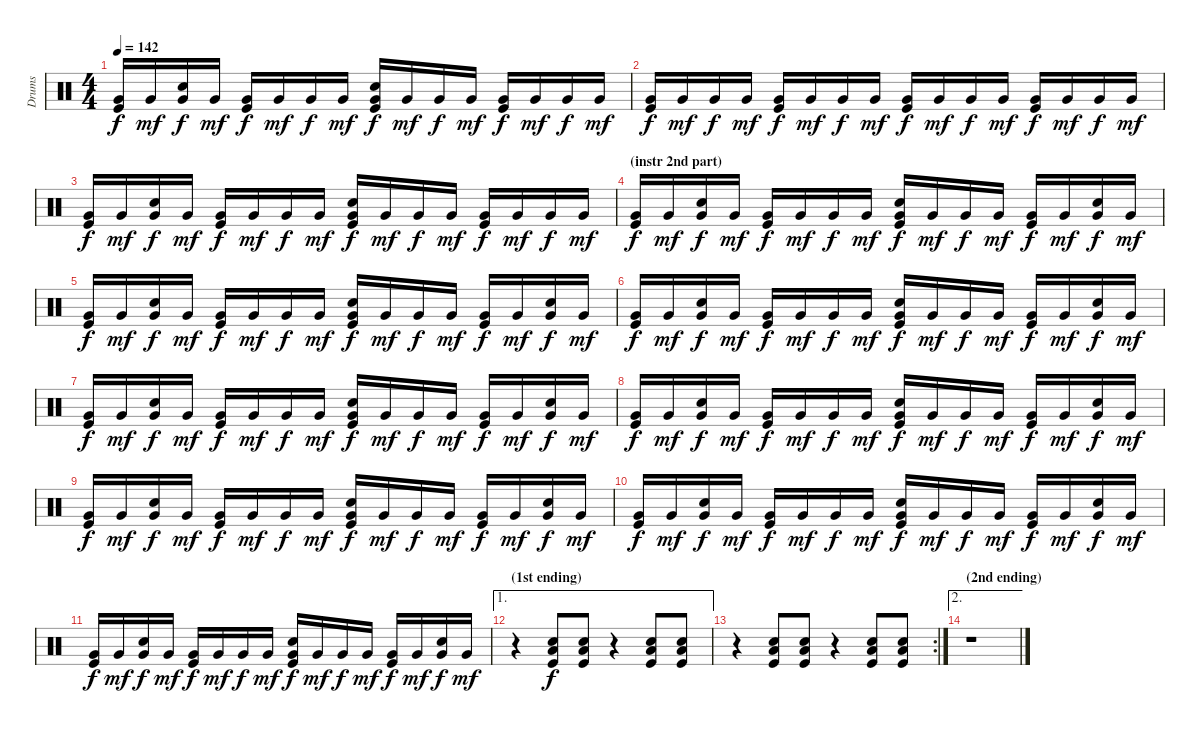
\track ("Drums" "Drums") {instrument percussion}
\staff {score}
\articulation defaults
\ts (4 4)
\tempo 142
\clef neutral
\ks c
("Very Low Tom (hit)" "Kick (hit)").16{dy f} "Very Low Tom (hit)".16{dy mf} ("Very Low Tom (hit)" "Snare (hit) 2").16{dy f} "Very Low Tom (hit)".16{dy mf} ("Very Low Tom (hit)" "Kick (hit)").16{dy f} "Very Low Tom (hit)".16{dy mf} "Very Low Tom (hit)".16{dy f} "Very Low Tom (hit)".16{dy mf} ("Very Low Tom (hit)" "Snare (hit) 2" "Kick (hit)").16{dy f} "Very Low Tom (hit)".16{dy mf} "Very Low Tom (hit)".16{dy f} "Very Low Tom (hit)".16{dy mf} ("Very Low Tom (hit)" "Kick (hit)").16{dy f} "Very Low Tom (hit)".16{dy mf} "Very Low Tom (hit)".16{dy f} "Very Low Tom (hit)".16{dy mf} |
("Very Low Tom (hit)" "Kick (hit)").16{dy f} "Very Low Tom (hit)".16{dy mf} "Very Low Tom (hit)".16{dy f} "Very Low Tom (hit)".16{dy mf} ("Very Low Tom (hit)" "Kick (hit)").16{dy f} "Very Low Tom (hit)".16{dy mf} "Very Low Tom (hit)".16{dy f} "Very Low Tom (hit)".16{dy mf} ("Very Low Tom (hit)" "Kick (hit)").16{dy f} "Very Low Tom (hit)".16{dy mf} "Very Low Tom (hit)".16{dy f} "Very Low Tom (hit)".16{dy mf} ("Very Low Tom (hit)" "Kick (hit)").16{dy f} "Very Low Tom (hit)".16{dy mf} "Very Low Tom (hit)".16{dy f} "Very Low Tom (hit)".16{dy mf} |
("Very Low Tom (hit)" "Kick (hit)").16{dy f} "Very Low Tom (hit)".16{dy mf} ("Very Low Tom (hit)" "Snare (hit) 2").16{dy f} "Very Low Tom (hit)".16{dy mf} ("Very Low Tom (hit)" "Kick (hit)").16{dy f} "Very Low Tom (hit)".16{dy mf} "Very Low Tom (hit)".16{dy f} "Very Low Tom (hit)".16{dy mf} ("Very Low Tom (hit)" "Snare (hit) 2" "Kick (hit)").16{dy f} "Very Low Tom (hit)".16{dy mf} "Very Low Tom (hit)".16{dy f} "Very Low Tom (hit)".16{dy mf} ("Very Low Tom (hit)" "Kick (hit)").16{dy f} "Very Low Tom (hit)".16{dy mf} "Very Low Tom (hit)".16{dy f} "Very Low Tom (hit)".16{dy mf} |
\section ("" "(instr 2nd part)")
("Very Low Tom (hit)" "Kick (hit)").16{dy f} "Very Low Tom (hit)".16{dy mf} ("Very Low Tom (hit)" "Snare (hit) 2").16{dy f} "Very Low Tom (hit)".16{dy mf} ("Very Low Tom (hit)" "Kick (hit)").16{dy f} "Very Low Tom (hit)".16{dy mf} "Very Low Tom (hit)".16{dy f} "Very Low Tom (hit)".16{dy mf} ("Very Low Tom (hit)" "Snare (hit) 2" "Kick (hit)").16{dy f} "Very Low Tom (hit)".16{dy mf} "Very Low Tom (hit)".16{dy f} "Very Low Tom (hit)".16{dy mf} ("Very Low Tom (hit)" "Kick (hit)").16{dy f} "Very Low Tom (hit)".16{dy mf} ("Very Low Tom (hit)" "Snare (hit) 2").16{dy f} "Very Low Tom (hit)".16{dy mf} |
("Very Low Tom (hit)" "Kick (hit)").16{dy f} "Very Low Tom (hit)".16{dy mf} ("Very Low Tom (hit)" "Snare (hit) 2").16{dy f} "Very Low Tom (hit)".16{dy mf} ("Very Low Tom (hit)" "Kick (hit)").16{dy f} "Very Low Tom (hit)".16{dy mf} "Very Low Tom (hit)".16{dy f} "Very Low Tom (hit)".16{dy mf} ("Very Low Tom (hit)" "Snare (hit) 2" "Kick (hit)").16{dy f} "Very Low Tom (hit)".16{dy mf} "Very Low Tom (hit)".16{dy f} "Very Low Tom (hit)".16{dy mf} ("Very Low Tom (hit)" "Kick (hit)").16{dy f} "Very Low Tom (hit)".16{dy mf} ("Very Low Tom (hit)" "Snare (hit) 2").16{dy f} "Very Low Tom (hit)".16{dy mf} |
("Very Low Tom (hit)" "Kick (hit)").16{dy f} "Very Low Tom (hit)".16{dy mf} ("Very Low Tom (hit)" "Snare (hit) 2").16{dy f} "Very Low Tom (hit)".16{dy mf} ("Very Low Tom (hit)" "Kick (hit)").16{dy f} "Very Low Tom (hit)".16{dy mf} "Very Low Tom (hit)".16{dy f} "Very Low Tom (hit)".16{dy mf} ("Very Low Tom (hit)" "Snare (hit) 2" "Kick (hit)").16{dy f} "Very Low Tom (hit)".16{dy mf} "Very Low Tom (hit)".16{dy f} "Very Low Tom (hit)".16{dy mf} ("Very Low Tom (hit)" "Kick (hit)").16{dy f} "Very Low Tom (hit)".16{dy mf} ("Very Low Tom (hit)" "Snare (hit) 2").16{dy f} "Very Low Tom (hit)".16{dy mf} |
("Very Low Tom (hit)" "Kick (hit)").16{dy f} "Very Low Tom (hit)".16{dy mf} ("Very Low Tom (hit)" "Snare (hit) 2").16{dy f} "Very Low Tom (hit)".16{dy mf} ("Very Low Tom (hit)" "Kick (hit)").16{dy f} "Very Low Tom (hit)".16{dy mf} "Very Low Tom (hit)".16{dy f} "Very Low Tom (hit)".16{dy mf} ("Very Low Tom (hit)" "Snare (hit) 2" "Kick (hit)").16{dy f} "Very Low Tom (hit)".16{dy mf} "Very Low Tom (hit)".16{dy f} "Very Low Tom (hit)".16{dy mf} ("Very Low Tom (hit)" "Kick (hit)").16{dy f} "Very Low Tom (hit)".16{dy mf} ("Very Low Tom (hit)" "Snare (hit) 2").16{dy f} "Very Low Tom (hit)".16{dy mf} |
("Very Low Tom (hit)" "Kick (hit)").16{dy f} "Very Low Tom (hit)".16{dy mf} ("Very Low Tom (hit)" "Snare (hit) 2").16{dy f} "Very Low Tom (hit)".16{dy mf} ("Very Low Tom (hit)" "Kick (hit)").16{dy f} "Very Low Tom (hit)".16{dy mf} "Very Low Tom (hit)".16{dy f} "Very Low Tom (hit)".16{dy mf} ("Very Low Tom (hit)" "Snare (hit) 2" "Kick (hit)").16{dy f} "Very Low Tom (hit)".16{dy mf} "Very Low Tom (hit)".16{dy f} "Very Low Tom (hit)".16{dy mf} ("Very Low Tom (hit)" "Kick (hit)").16{dy f} "Very Low Tom (hit)".16{dy mf} ("Very Low Tom (hit)" "Snare (hit) 2").16{dy f} "Very Low Tom (hit)".16{dy mf} |
("Very Low Tom (hit)" "Kick (hit)").16{dy f} "Very Low Tom (hit)".16{dy mf} ("Very Low Tom (hit)" "Snare (hit) 2").16{dy f} "Very Low Tom (hit)".16{dy mf} ("Very Low Tom (hit)" "Kick (hit)").16{dy f} "Very Low Tom (hit)".16{dy mf} "Very Low Tom (hit)".16{dy f} "Very Low Tom (hit)".16{dy mf} ("Very Low Tom (hit)" "Snare (hit) 2" "Kick (hit)").16{dy f} "Very Low Tom (hit)".16{dy mf} "Very Low Tom (hit)".16{dy f} "Very Low Tom (hit)".16{dy mf} ("Very Low Tom (hit)" "Kick (hit)").16{dy f} "Very Low Tom (hit)".16{dy mf} ("Very Low Tom (hit)" "Snare (hit) 2").16{dy f} "Very Low Tom (hit)".16{dy mf} |
("Very Low Tom (hit)" "Kick (hit)").16{dy f} "Very Low Tom (hit)".16{dy mf} ("Very Low Tom (hit)" "Snare (hit) 2").16{dy f} "Very Low Tom (hit)".16{dy mf} ("Very Low Tom (hit)" "Kick (hit)").16{dy f} "Very Low Tom (hit)".16{dy mf} "Very Low Tom (hit)".16{dy f} "Very Low Tom (hit)".16{dy mf} ("Very Low Tom (hit)" "Snare (hit) 2" "Kick (hit)").16{dy f} "Very Low Tom (hit)".16{dy mf} "Very Low Tom (hit)".16{dy f} "Very Low Tom (hit)".16{dy mf} ("Very Low Tom (hit)" "Kick (hit)").16{dy f} "Very Low Tom (hit)".16{dy mf} ("Very Low Tom (hit)" "Snare (hit) 2").16{dy f} "Very Low Tom (hit)".16{dy mf} |
("Very Low Tom (hit)" "Kick (hit)").16{dy f} "Very Low Tom (hit)".16{dy mf} ("Very Low Tom (hit)" "Snare (hit) 2").16{dy f} "Very Low Tom (hit)".16{dy mf} ("Very Low Tom (hit)" "Kick (hit)").16{dy f} "Very Low Tom (hit)".16{dy mf} "Very Low Tom (hit)".16{dy f} "Very Low Tom (hit)".16{dy mf} ("Very Low Tom (hit)" "Snare (hit) 2" "Kick (hit)").16{dy f} "Very Low Tom (hit)".16{dy mf} "Very Low Tom (hit)".16{dy f} "Very Low Tom (hit)".16{dy mf} ("Very Low Tom (hit)" "Kick (hit)").16{dy f} "Very Low Tom (hit)".16{dy mf} ("Very Low Tom (hit)" "Snare (hit) 2").16{dy f} "Very Low Tom (hit)".16{dy mf} |
\ae 1
\section ("" "(1st ending)")
r.4 ("Low Tom (hit)" "Snare (hit) 2" "Kick (hit)").8{dy f} ("Low Tom (hit)" "Snare (hit) 2" "Kick (hit)").8 r.4 ("Low Tom (hit)" "Snare (hit) 2" "Kick (hit)").8 ("Low Tom (hit)" "Snare (hit) 2" "Kick (hit)").8 |
\rc 2
r.4 ("Low Tom (hit)" "Snare (hit) 2" "Kick (hit)").8 ("Low Tom (hit)" "Snare (hit) 2" "Kick (hit)").8 r.4 ("Low Tom (hit)" "Snare (hit) 2" "Kick (hit)").8 ("Low Tom (hit)" "Snare (hit) 2" "Kick (hit)").8 |
\ae 2
\section ("" "(2nd ending)")
r.1
